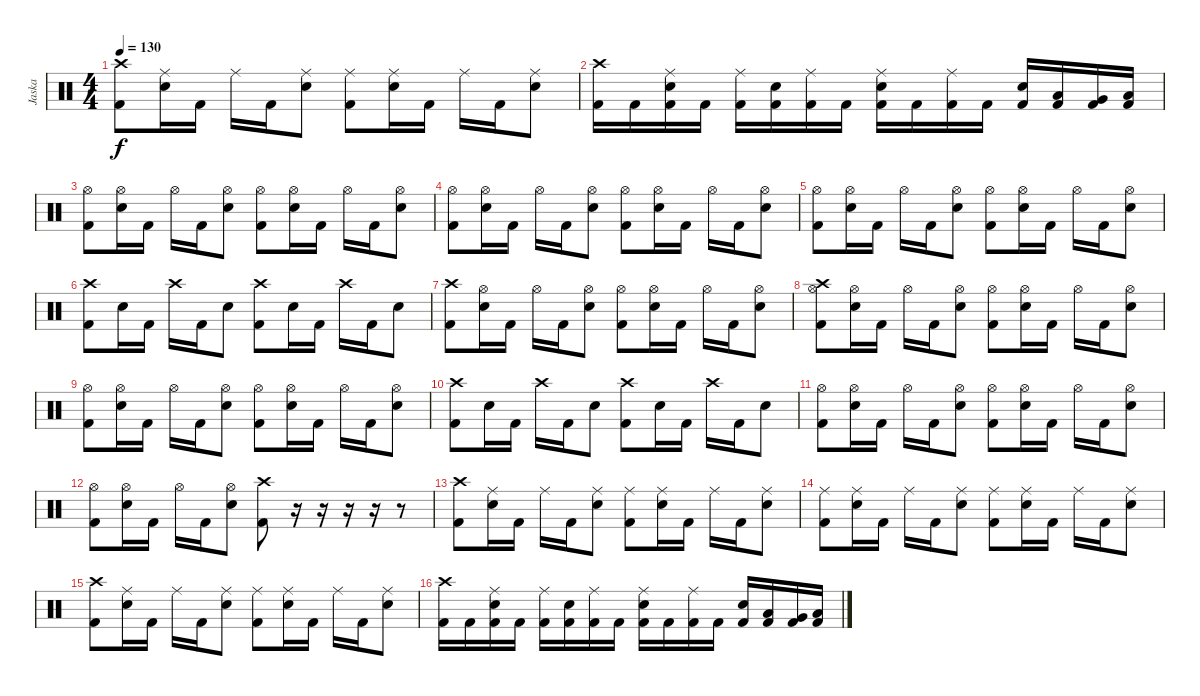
\track ("Jaska " "Jaska ") {instrument percussion}
\staff {score}
\articulation defaults
\ts (4 4)
\tempo 130
\clef neutral
\ks c
("Crash high (hit)" "Kick (hit) 2").8{dy f} ("Ride (middle)" "Electric Snare (hit)").16 "Kick (hit) 2".16 "Ride (middle)".16 "Kick (hit) 2".16 ("Ride (middle)" "Electric Snare (hit)").8 ("Ride (middle)" "Kick (hit) 2").8 ("Ride (middle)" "Electric Snare (hit)").16 "Kick (hit) 2".16 "Ride (middle)".16 "Kick (hit) 2".16 ("Ride (middle)" "Electric Snare (hit)").8 |
("Crash high (hit)" "Kick (hit) 2").16 "Kick (hit) 2".16 ("Ride (middle)" "Electric Snare (hit)" "Kick (hit) 2").16 "Kick (hit) 2".16 ("Ride (middle)" "Kick (hit) 2").16 ("Electric Snare (hit)" "Kick (hit) 2").16 ("Ride (middle)" "Kick (hit) 2").16 "Kick (hit) 2".16 ("Ride (middle)" "Electric Snare (hit)" "Kick (hit) 2").16 "Kick (hit) 2".16 ("Ride (middle)" "Kick (hit) 2").16 "Kick (hit) 2".16 ("Electric Snare (hit)" "Kick (hit) 2").16 ("Low Tom (hit)" "Kick (hit) 2").16 ("Very Low Tom (hit)" "Kick (hit) 2").16 ("Low Floor Tom (hit)" "Kick (hit) 2").16 |
("Hi-Hat (open)" "Kick (hit) 2").8 ("Hi-Hat (open)" "Electric Snare (hit)").16 "Kick (hit) 2".16 "Hi-Hat (open)".16 "Kick (hit) 2".16 ("Hi-Hat (open)" "Electric Snare (hit)").8 ("Hi-Hat (open)" "Kick (hit) 2").8 ("Hi-Hat (open)" "Electric Snare (hit)").16 "Kick (hit) 2".16 "Hi-Hat (open)".16 "Kick (hit) 2".16 ("Hi-Hat (open)" "Electric Snare (hit)").8 |
("Hi-Hat (open)" "Kick (hit) 2").8 ("Hi-Hat (open)" "Electric Snare (hit)").16 "Kick (hit) 2".16 "Hi-Hat (open)".16 "Kick (hit) 2".16 ("Hi-Hat (open)" "Electric Snare (hit)").8 ("Hi-Hat (open)" "Kick (hit) 2").8 ("Hi-Hat (open)" "Electric Snare (hit)").16 "Kick (hit) 2".16 "Hi-Hat (open)".16 "Kick (hit) 2".16 ("Hi-Hat (open)" "Electric Snare (hit)").8 |
("Hi-Hat (open)" "Kick (hit) 2").8 ("Hi-Hat (open)" "Electric Snare (hit)").16 "Kick (hit) 2".16 "Hi-Hat (open)".16 "Kick (hit) 2".16 ("Hi-Hat (open)" "Electric Snare (hit)").8 ("Hi-Hat (open)" "Kick (hit) 2").8 ("Hi-Hat (open)" "Electric Snare (hit)").16 "Kick (hit) 2".16 "Hi-Hat (open)".16 "Kick (hit) 2".16 ("Hi-Hat (open)" "Electric Snare (hit)").8 |
("Crash high (hit)" "Kick (hit) 2").8 "Electric Snare (hit)".16 "Kick (hit) 2".16 "Crash high (hit)".16 "Kick (hit) 2".16 "Electric Snare (hit)".8 ("Crash high (hit)" "Kick (hit) 2").8 "Electric Snare (hit)".16 "Kick (hit) 2".16 "Crash high (hit)".16 "Kick (hit) 2".16 "Electric Snare (hit)".8 |
("Crash high (hit)" "Kick (hit) 2").8 ("Hi-Hat (open)" "Electric Snare (hit)").16 "Kick (hit) 2".16 "Hi-Hat (open)".16 "Kick (hit) 2".16 ("Hi-Hat (open)" "Electric Snare (hit)").8 ("Hi-Hat (open)" "Kick (hit) 2").8 ("Hi-Hat (open)" "Electric Snare (hit)").16 "Kick (hit) 2".16 "Hi-Hat (open)".16 "Kick (hit) 2".16 ("Hi-Hat (open)" "Electric Snare (hit)").8 |
("Crash high (hit)" "Hi-Hat (open)" "Kick (hit) 2").8 ("Hi-Hat (open)" "Electric Snare (hit)").16 "Kick (hit) 2".16 "Hi-Hat (open)".16 "Kick (hit) 2".16 ("Hi-Hat (open)" "Electric Snare (hit)").8 ("Hi-Hat (open)" "Kick (hit) 2").8 ("Hi-Hat (open)" "Electric Snare (hit)").16 "Kick (hit) 2".16 "Hi-Hat (open)".16 "Kick (hit) 2".16 ("Hi-Hat (open)" "Electric Snare (hit)").8 |
("Hi-Hat (open)" "Kick (hit) 2").8 ("Hi-Hat (open)" "Electric Snare (hit)").16 "Kick (hit) 2".16 "Hi-Hat (open)".16 "Kick (hit) 2".16 ("Hi-Hat (open)" "Electric Snare (hit)").8 ("Hi-Hat (open)" "Kick (hit) 2").8 ("Hi-Hat (open)" "Electric Snare (hit)").16 "Kick (hit) 2".16 "Hi-Hat (open)".16 "Kick (hit) 2".16 ("Hi-Hat (open)" "Electric Snare (hit)").8 |
("Crash high (hit)" "Kick (hit) 2").8 "Electric Snare (hit)".16 "Kick (hit) 2".16 "Crash high (hit)".16 "Kick (hit) 2".16 "Electric Snare (hit)".8 ("Crash high (hit)" "Kick (hit) 2").8 "Electric Snare (hit)".16 "Kick (hit) 2".16 "Crash high (hit)".16 "Kick (hit) 2".16 "Electric Snare (hit)".8 |
("Hi-Hat (open)" "Kick (hit) 2").8 ("Hi-Hat (open)" "Electric Snare (hit)").16 "Kick (hit) 2".16 "Hi-Hat (open)".16 "Kick (hit) 2".16 ("Hi-Hat (open)" "Electric Snare (hit)").8 ("Hi-Hat (open)" "Kick (hit) 2").8 ("Hi-Hat (open)" "Electric Snare (hit)").16 "Kick (hit) 2".16 "Hi-Hat (open)".16 "Kick (hit) 2".16 ("Hi-Hat (open)" "Electric Snare (hit)").8 |
("Hi-Hat (open)" "Kick (hit) 2").8 ("Hi-Hat (open)" "Electric Snare (hit)").16 "Kick (hit) 2".16 "Hi-Hat (open)".16 "Kick (hit) 2".16 ("Hi-Hat (open)" "Electric Snare (hit)").8 ("Crash high (hit)" "Kick (hit) 2").8 r.16 r.16 r.16 r.16 r.8 |
("Crash high (hit)" "Kick (hit) 2").8 ("Ride (middle)" "Electric Snare (hit)").16 "Kick (hit) 2".16 "Ride (middle)".16 "Kick (hit) 2".16 ("Ride (middle)" "Electric Snare (hit)").8 ("Ride (middle)" "Kick (hit) 2").8 ("Ride (middle)" "Electric Snare (hit)").16 "Kick (hit) 2".16 "Ride (middle)".16 "Kick (hit) 2".16 ("Ride (middle)" "Electric Snare (hit)").8 |
("Ride (middle)" "Kick (hit) 2").8 ("Ride (middle)" "Electric Snare (hit)").16 "Kick (hit) 2".16 "Ride (middle)".16 "Kick (hit) 2".16 ("Ride (middle)" "Electric Snare (hit)").8 ("Ride (middle)" "Kick (hit) 2").8 ("Ride (middle)" "Electric Snare (hit)").16 "Kick (hit) 2".16 "Ride (middle)".16 "Kick (hit) 2".16 ("Ride (middle)" "Electric Snare (hit)").8 |
("Crash high (hit)" "Kick (hit) 2").8 ("Ride (middle)" "Electric Snare (hit)").16 "Kick (hit) 2".16 "Ride (middle)".16 "Kick (hit) 2".16 ("Ride (middle)" "Electric Snare (hit)").8 ("Ride (middle)" "Kick (hit) 2").8 ("Ride (middle)" "Electric Snare (hit)").16 "Kick (hit) 2".16 "Ride (middle)".16 "Kick (hit) 2".16 ("Ride (middle)" "Electric Snare (hit)").8 |
("Crash high (hit)" "Kick (hit) 2").16 "Kick (hit) 2".16 ("Ride (middle)" "Electric Snare (hit)" "Kick (hit) 2").16 "Kick (hit) 2".16 ("Ride (middle)" "Kick (hit) 2").16 ("Electric Snare (hit)" "Kick (hit) 2").16 ("Ride (middle)" "Kick (hit) 2").16 "Kick (hit) 2".16 ("Ride (middle)" "Electric Snare (hit)" "Kick (hit) 2").16 "Kick (hit) 2".16 ("Ride (middle)" "Kick (hit) 2").16 "Kick (hit) 2".16 ("Electric Snare (hit)" "Kick (hit) 2").16 ("Low Tom (hit)" "Kick (hit) 2").16 ("Very Low Tom (hit)" "Kick (hit) 2").16 ("Low Floor Tom (hit)" "Kick (hit) 2").16
